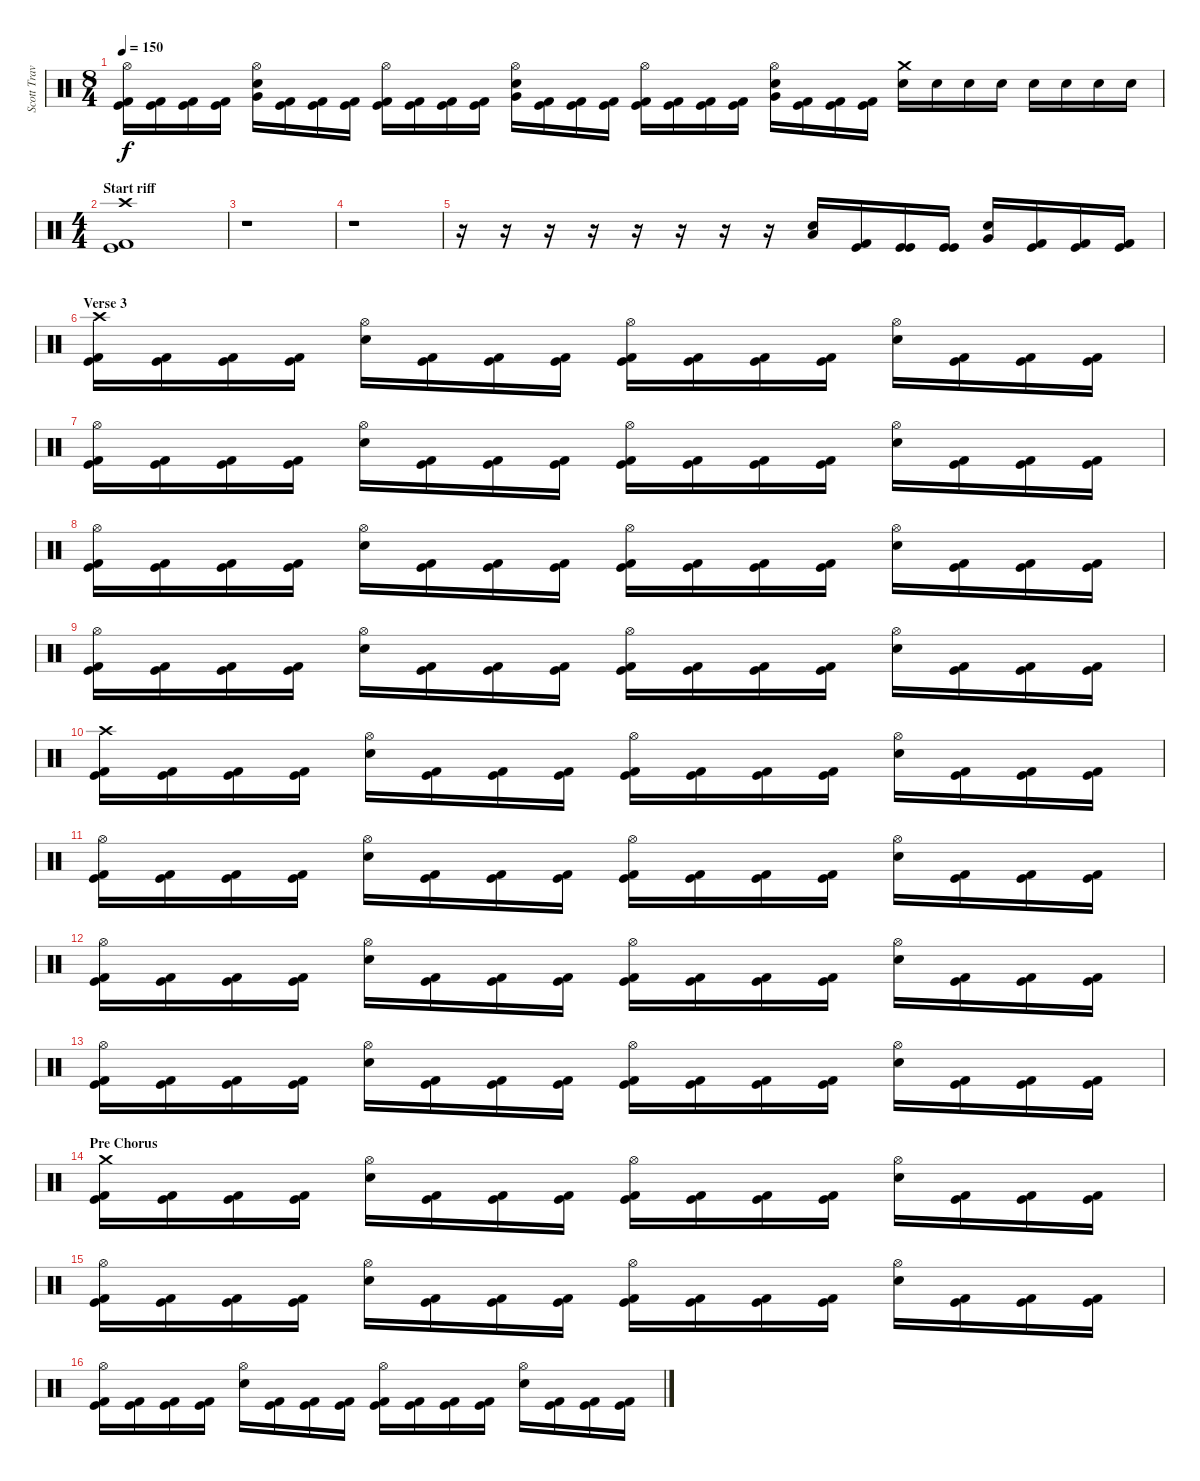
\track ("Scott Travis" "Scott Trav") {instrument percussion}
\staff {score}
\articulation defaults
\ts (8 4)
\tempo 150
\clef neutral
\ks c
("Hi-Hat (open)" "Kick (hit)" "Kick (hit) 2").16{dy f} ("Kick (hit)" "Kick (hit) 2").16 ("Kick (hit)" "Kick (hit) 2").16 ("Kick (hit)" "Kick (hit) 2").16 ("Hi-Hat (open)" "Very Low Tom (hit)" "Electric Snare (hit)").16 ("Kick (hit)" "Kick (hit) 2").16 ("Kick (hit)" "Kick (hit) 2").16 ("Kick (hit)" "Kick (hit) 2").16 ("Hi-Hat (open)" "Kick (hit)" "Kick (hit) 2").16 ("Kick (hit)" "Kick (hit) 2").16 ("Kick (hit)" "Kick (hit) 2").16 ("Kick (hit)" "Kick (hit) 2").16 ("Hi-Hat (open)" "Very Low Tom (hit)" "Electric Snare (hit)").16 ("Kick (hit)" "Kick (hit) 2").16 ("Kick (hit)" "Kick (hit) 2").16 ("Kick (hit)" "Kick (hit) 2").16 ("Hi-Hat (open)" "Kick (hit)" "Kick (hit) 2").16 ("Kick (hit)" "Kick (hit) 2").16 ("Kick (hit)" "Kick (hit) 2").16 ("Kick (hit)" "Kick (hit) 2").16 ("Hi-Hat (open)" "Very Low Tom (hit)" "Electric Snare (hit)").16 ("Kick (hit)" "Kick (hit) 2").16 ("Kick (hit)" "Kick (hit) 2").16 ("Kick (hit)" "Kick (hit) 2").16 ("Crash medium (hit)" "Electric Snare (hit)").16 "Electric Snare (hit)".16 "Electric Snare (hit)".16 "Electric Snare (hit)".16 "Electric Snare (hit)".16 "Electric Snare (hit)".16 "Electric Snare (hit)".16 "Electric Snare (hit)".16 |
\ts (4 4)
\section ("" "Start riff")
("Crash high (hit)" "Kick (hit)" "Kick (hit) 2").1 |
r.1 |
r.1 |
r.16 r.16 r.16 r.16 r.16 r.16 r.16 r.16 ("Low Tom (hit)" "Electric Snare (hit)").16 ("Kick (hit)" "Kick (hit) 2").16 ("Kick (hit)" "Kick (hit)").16 ("Kick (hit)" "Kick (hit)").16 ("Very Low Tom (hit)" "Electric Snare (hit)").16 ("Kick (hit)" "Kick (hit) 2").16 ("Kick (hit)" "Kick (hit) 2").16 ("Kick (hit)" "Kick (hit) 2").16 |
\section ("" "Verse 3")
("Crash high (hit)" "Kick (hit)" "Kick (hit) 2").16 ("Kick (hit)" "Kick (hit) 2").16 ("Kick (hit)" "Kick (hit) 2").16 ("Kick (hit)" "Kick (hit) 2").16 ("Hi-Hat (open)" "Electric Snare (hit)").16 ("Kick (hit)" "Kick (hit) 2").16 ("Kick (hit)" "Kick (hit) 2").16 ("Kick (hit)" "Kick (hit) 2").16 ("Hi-Hat (open)" "Kick (hit)" "Kick (hit) 2").16 ("Kick (hit)" "Kick (hit) 2").16 ("Kick (hit)" "Kick (hit) 2").16 ("Kick (hit)" "Kick (hit) 2").16 ("Hi-Hat (open)" "Electric Snare (hit)").16 ("Kick (hit)" "Kick (hit) 2").16 ("Kick (hit)" "Kick (hit) 2").16 ("Kick (hit)" "Kick (hit) 2").16 |
("Hi-Hat (open)" "Kick (hit)" "Kick (hit) 2").16 ("Kick (hit)" "Kick (hit) 2").16 ("Kick (hit)" "Kick (hit) 2").16 ("Kick (hit)" "Kick (hit) 2").16 ("Hi-Hat (open)" "Electric Snare (hit)").16 ("Kick (hit)" "Kick (hit) 2").16 ("Kick (hit)" "Kick (hit) 2").16 ("Kick (hit)" "Kick (hit) 2").16 ("Hi-Hat (open)" "Kick (hit)" "Kick (hit) 2").16 ("Kick (hit)" "Kick (hit) 2").16 ("Kick (hit)" "Kick (hit) 2").16 ("Kick (hit)" "Kick (hit) 2").16 ("Hi-Hat (open)" "Electric Snare (hit)").16 ("Kick (hit)" "Kick (hit) 2").16 ("Kick (hit)" "Kick (hit) 2").16 ("Kick (hit)" "Kick (hit) 2").16 |
("Hi-Hat (open)" "Kick (hit)" "Kick (hit) 2").16 ("Kick (hit)" "Kick (hit) 2").16 ("Kick (hit)" "Kick (hit) 2").16 ("Kick (hit)" "Kick (hit) 2").16 ("Hi-Hat (open)" "Electric Snare (hit)").16 ("Kick (hit)" "Kick (hit) 2").16 ("Kick (hit)" "Kick (hit) 2").16 ("Kick (hit)" "Kick (hit) 2").16 ("Hi-Hat (open)" "Kick (hit)" "Kick (hit) 2").16 ("Kick (hit)" "Kick (hit) 2").16 ("Kick (hit)" "Kick (hit) 2").16 ("Kick (hit)" "Kick (hit) 2").16 ("Hi-Hat (open)" "Electric Snare (hit)").16 ("Kick (hit)" "Kick (hit) 2").16 ("Kick (hit)" "Kick (hit) 2").16 ("Kick (hit)" "Kick (hit) 2").16 |
("Hi-Hat (open)" "Kick (hit)" "Kick (hit) 2").16 ("Kick (hit)" "Kick (hit) 2").16 ("Kick (hit)" "Kick (hit) 2").16 ("Kick (hit)" "Kick (hit) 2").16 ("Hi-Hat (open)" "Electric Snare (hit)").16 ("Kick (hit)" "Kick (hit) 2").16 ("Kick (hit)" "Kick (hit) 2").16 ("Kick (hit)" "Kick (hit) 2").16 ("Hi-Hat (open)" "Kick (hit)" "Kick (hit) 2").16 ("Kick (hit)" "Kick (hit) 2").16 ("Kick (hit)" "Kick (hit) 2").16 ("Kick (hit)" "Kick (hit) 2").16 ("Hi-Hat (open)" "Electric Snare (hit)").16 ("Kick (hit)" "Kick (hit) 2").16 ("Kick (hit)" "Kick (hit) 2").16 ("Kick (hit)" "Kick (hit) 2").16 |
("Crash high (hit)" "Kick (hit)" "Kick (hit) 2").16 ("Kick (hit)" "Kick (hit) 2").16 ("Kick (hit)" "Kick (hit) 2").16 ("Kick (hit)" "Kick (hit) 2").16 ("Hi-Hat (open)" "Electric Snare (hit)").16 ("Kick (hit)" "Kick (hit) 2").16 ("Kick (hit)" "Kick (hit) 2").16 ("Kick (hit)" "Kick (hit) 2").16 ("Hi-Hat (open)" "Kick (hit)" "Kick (hit) 2").16 ("Kick (hit)" "Kick (hit) 2").16 ("Kick (hit)" "Kick (hit) 2").16 ("Kick (hit)" "Kick (hit) 2").16 ("Hi-Hat (open)" "Electric Snare (hit)").16 ("Kick (hit)" "Kick (hit) 2").16 ("Kick (hit)" "Kick (hit) 2").16 ("Kick (hit)" "Kick (hit) 2").16 |
("Hi-Hat (open)" "Kick (hit)" "Kick (hit) 2").16 ("Kick (hit)" "Kick (hit) 2").16 ("Kick (hit)" "Kick (hit) 2").16 ("Kick (hit)" "Kick (hit) 2").16 ("Hi-Hat (open)" "Electric Snare (hit)").16 ("Kick (hit)" "Kick (hit) 2").16 ("Kick (hit)" "Kick (hit) 2").16 ("Kick (hit)" "Kick (hit) 2").16 ("Hi-Hat (open)" "Kick (hit)" "Kick (hit) 2").16 ("Kick (hit)" "Kick (hit) 2").16 ("Kick (hit)" "Kick (hit) 2").16 ("Kick (hit)" "Kick (hit) 2").16 ("Hi-Hat (open)" "Electric Snare (hit)").16 ("Kick (hit)" "Kick (hit) 2").16 ("Kick (hit)" "Kick (hit) 2").16 ("Kick (hit)" "Kick (hit) 2").16 |
("Hi-Hat (open)" "Kick (hit)" "Kick (hit) 2").16 ("Kick (hit)" "Kick (hit) 2").16 ("Kick (hit)" "Kick (hit) 2").16 ("Kick (hit)" "Kick (hit) 2").16 ("Hi-Hat (open)" "Electric Snare (hit)").16 ("Kick (hit)" "Kick (hit) 2").16 ("Kick (hit)" "Kick (hit) 2").16 ("Kick (hit)" "Kick (hit) 2").16 ("Hi-Hat (open)" "Kick (hit)" "Kick (hit) 2").16 ("Kick (hit)" "Kick (hit) 2").16 ("Kick (hit)" "Kick (hit) 2").16 ("Kick (hit)" "Kick (hit) 2").16 ("Hi-Hat (open)" "Electric Snare (hit)").16 ("Kick (hit)" "Kick (hit) 2").16 ("Kick (hit)" "Kick (hit) 2").16 ("Kick (hit)" "Kick (hit) 2").16 |
("Hi-Hat (open)" "Kick (hit)" "Kick (hit) 2").16 ("Kick (hit)" "Kick (hit) 2").16 ("Kick (hit)" "Kick (hit) 2").16 ("Kick (hit)" "Kick (hit) 2").16 ("Hi-Hat (open)" "Electric Snare (hit)").16 ("Kick (hit)" "Kick (hit) 2").16 ("Kick (hit)" "Kick (hit) 2").16 ("Kick (hit)" "Kick (hit) 2").16 ("Hi-Hat (open)" "Kick (hit)" "Kick (hit) 2").16 ("Kick (hit)" "Kick (hit) 2").16 ("Kick (hit)" "Kick (hit) 2").16 ("Kick (hit)" "Kick (hit) 2").16 ("Hi-Hat (open)" "Electric Snare (hit)").16 ("Kick (hit)" "Kick (hit) 2").16 ("Kick (hit)" "Kick (hit) 2").16 ("Kick (hit)" "Kick (hit) 2").16 |
\section ("" "Pre Chorus")
("Crash medium (hit)" "Kick (hit)" "Kick (hit) 2").16 ("Kick (hit)" "Kick (hit) 2").16 ("Kick (hit)" "Kick (hit) 2").16 ("Kick (hit)" "Kick (hit) 2").16 ("Hi-Hat (open)" "Electric Snare (hit)").16 ("Kick (hit)" "Kick (hit) 2").16 ("Kick (hit)" "Kick (hit) 2").16 ("Kick (hit)" "Kick (hit) 2").16 ("Hi-Hat (open)" "Kick (hit)" "Kick (hit) 2").16 ("Kick (hit)" "Kick (hit) 2").16 ("Kick (hit)" "Kick (hit) 2").16 ("Kick (hit)" "Kick (hit) 2").16 ("Hi-Hat (open)" "Electric Snare (hit)").16 ("Kick (hit)" "Kick (hit) 2").16 ("Kick (hit)" "Kick (hit) 2").16 ("Kick (hit)" "Kick (hit) 2").16 |
("Hi-Hat (open)" "Kick (hit)" "Kick (hit) 2").16 ("Kick (hit)" "Kick (hit) 2").16 ("Kick (hit)" "Kick (hit) 2").16 ("Kick (hit)" "Kick (hit) 2").16 ("Hi-Hat (open)" "Electric Snare (hit)").16 ("Kick (hit)" "Kick (hit) 2").16 ("Kick (hit)" "Kick (hit) 2").16 ("Kick (hit)" "Kick (hit) 2").16 ("Hi-Hat (open)" "Kick (hit)" "Kick (hit) 2").16 ("Kick (hit)" "Kick (hit) 2").16 ("Kick (hit)" "Kick (hit) 2").16 ("Kick (hit)" "Kick (hit) 2").16 ("Hi-Hat (open)" "Electric Snare (hit)").16 ("Kick (hit)" "Kick (hit) 2").16 ("Kick (hit)" "Kick (hit) 2").16 ("Kick (hit)" "Kick (hit) 2").16 |
("Hi-Hat (open)" "Kick (hit)" "Kick (hit) 2").16 ("Kick (hit)" "Kick (hit) 2").16 ("Kick (hit)" "Kick (hit) 2").16 ("Kick (hit)" "Kick (hit) 2").16 ("Hi-Hat (open)" "Electric Snare (hit)").16 ("Kick (hit)" "Kick (hit) 2").16 ("Kick (hit)" "Kick (hit) 2").16 ("Kick (hit)" "Kick (hit) 2").16 ("Hi-Hat (open)" "Kick (hit)" "Kick (hit) 2").16 ("Kick (hit)" "Kick (hit) 2").16 ("Kick (hit)" "Kick (hit) 2").16 ("Kick (hit)" "Kick (hit) 2").16 ("Hi-Hat (open)" "Electric Snare (hit)").16 ("Kick (hit)" "Kick (hit) 2").16 ("Kick (hit)" "Kick (hit) 2").16 ("Kick (hit)" "Kick (hit) 2").16
